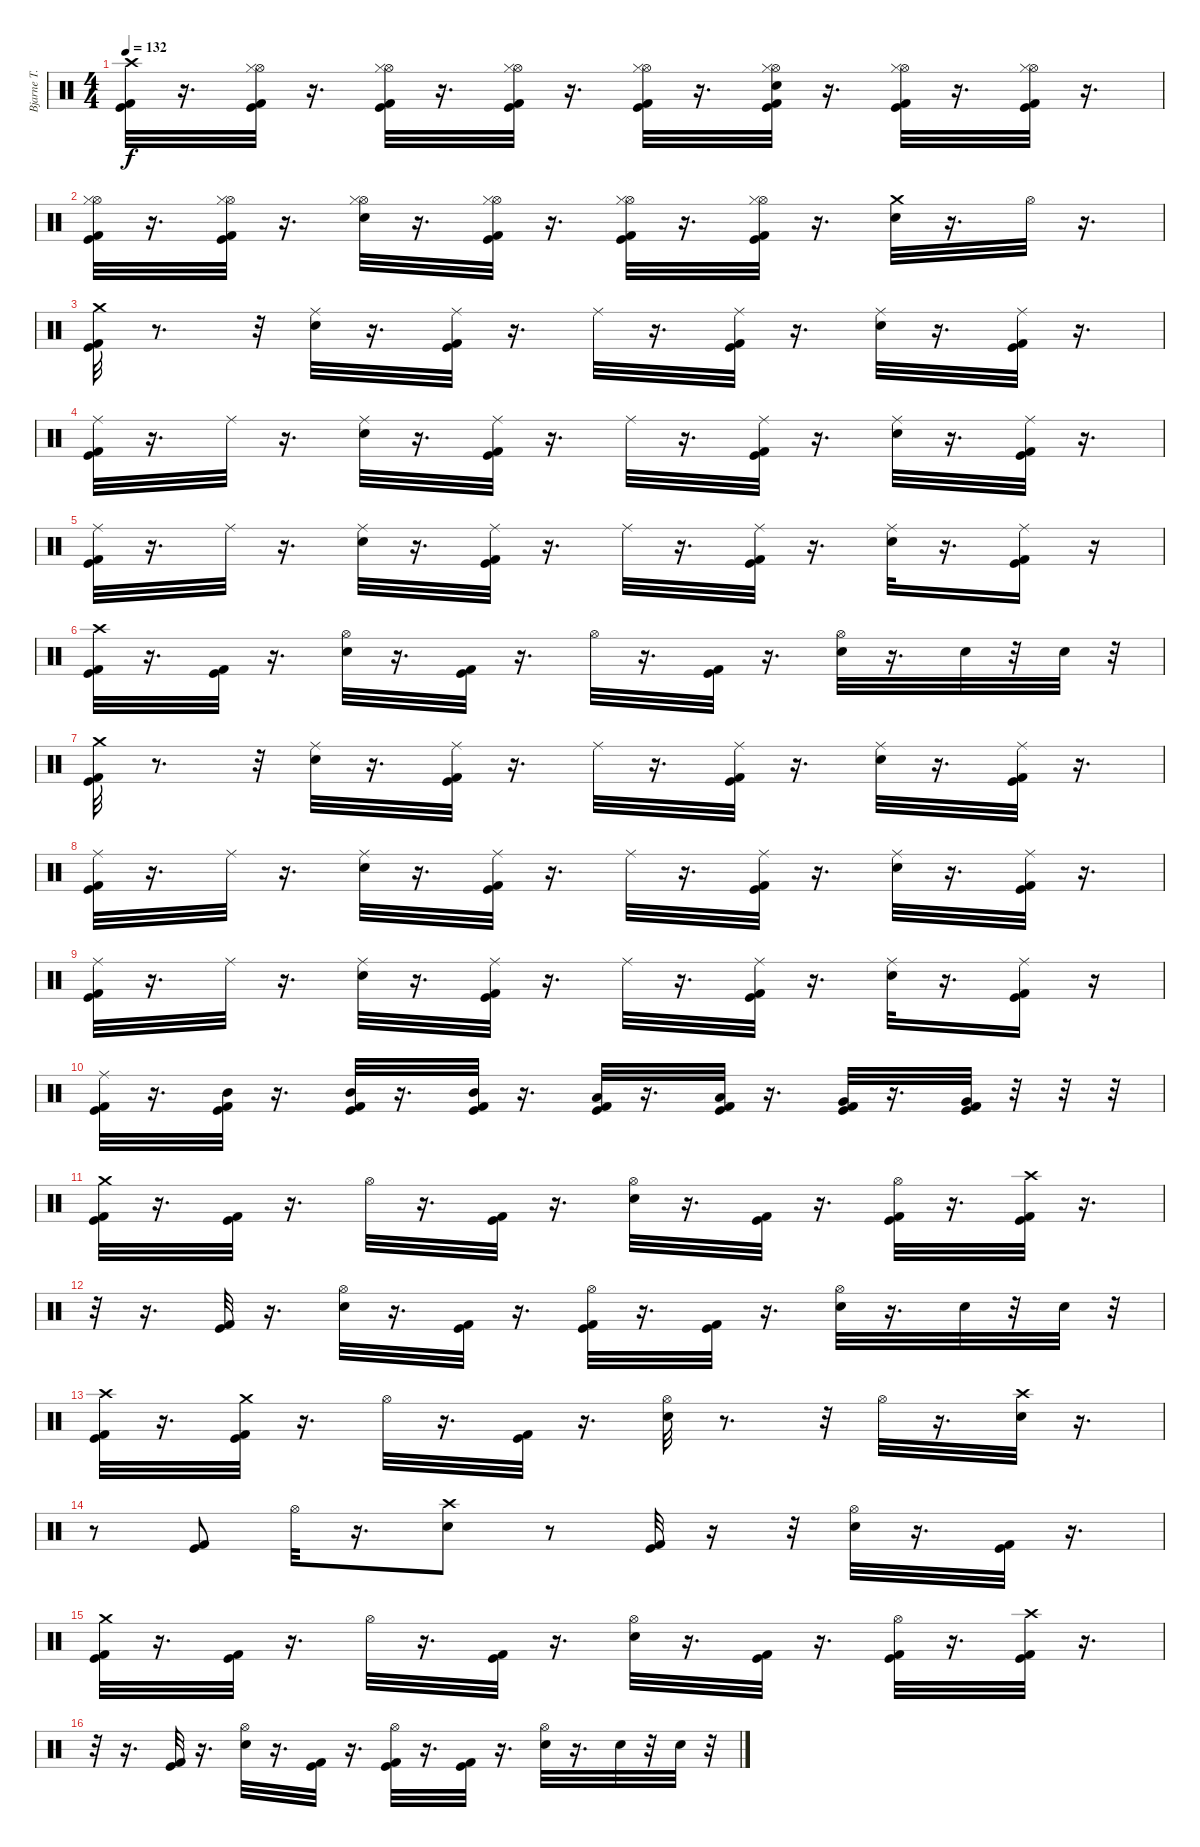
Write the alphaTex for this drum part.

\track ("Bjarne T. Holme" "Bjarne T. ") {instrument percussion}
\staff {score}
\articulation defaults
\ts (4 4)
\tempo 132
\clef neutral
\ks c
("Crash high (hit)" "Kick (hit)" "Kick (hit) 2").32{dy f} r.16{d} ("Hi-Hat (open)" "Hi-Hat (closed)" "Kick (hit)" "Kick (hit) 2").32 r.16{d} ("Hi-Hat (open)" "Hi-Hat (closed)" "Kick (hit)" "Kick (hit) 2").32 r.16{d} ("Hi-Hat (open)" "Hi-Hat (closed)" "Kick (hit)" "Kick (hit) 2").32 r.16{d} ("Hi-Hat (open)" "Hi-Hat (closed)" "Kick (hit)" "Kick (hit) 2").32 r.16{d} ("Hi-Hat (open)" "Hi-Hat (closed)" "Snare (hit) 2" "Kick (hit)" "Kick (hit) 2").32 r.16{d} ("Hi-Hat (open)" "Hi-Hat (closed)" "Kick (hit)" "Kick (hit) 2").32 r.16{d} ("Hi-Hat (open)" "Hi-Hat (closed)" "Kick (hit)" "Kick (hit) 2").32 r.16{d} |
("Hi-Hat (open)" "Hi-Hat (closed)" "Kick (hit)" "Kick (hit) 2").32 r.16{d} ("Hi-Hat (open)" "Hi-Hat (closed)" "Kick (hit)" "Kick (hit) 2").32 r.16{d} ("Hi-Hat (open)" "Hi-Hat (closed)" "Snare (hit) 2").32 r.16{d} ("Hi-Hat (open)" "Hi-Hat (closed)" "Kick (hit)" "Kick (hit) 2").32 r.16{d} ("Hi-Hat (open)" "Hi-Hat (closed)" "Kick (hit)" "Kick (hit) 2").32 r.16{d} ("Hi-Hat (open)" "Hi-Hat (closed)" "Kick (hit)" "Kick (hit) 2").32 r.16{d} ("Crash medium (hit)" "Snare (hit) 2").32 r.16{d} "Hi-Hat (open)".32 r.16{d} |
("Crash medium (hit)" "Kick (hit)" "Kick (hit) 2").32 r.8{d} r.32 ("Ride (middle)" "Snare (hit) 2").32 r.16{d} ("Ride (middle)" "Kick (hit)" "Kick (hit) 2").32 r.16{d} "Ride (middle)".32 r.16{d} ("Ride (middle)" "Kick (hit)" "Kick (hit) 2").32 r.16{d} ("Ride (middle)" "Snare (hit) 2").32 r.16{d} ("Ride (middle)" "Kick (hit)" "Kick (hit) 2").32 r.16{d} |
("Ride (middle)" "Kick (hit)" "Kick (hit) 2").32 r.16{d} "Ride (middle)".32 r.16{d} ("Ride (middle)" "Snare (hit) 2").32 r.16{d} ("Ride (middle)" "Kick (hit)" "Kick (hit) 2").32 r.16{d} "Ride (middle)".32 r.16{d} ("Ride (middle)" "Kick (hit)" "Kick (hit) 2").32 r.16{d} ("Ride (middle)" "Snare (hit) 2").32 r.16{d} ("Ride (middle)" "Kick (hit)" "Kick (hit) 2").32 r.16{d} |
("Ride (middle)" "Kick (hit)" "Kick (hit) 2").32 r.16{d} "Ride (middle)".32 r.16{d} ("Ride (middle)" "Snare (hit) 2").32 r.16{d} ("Ride (middle)" "Kick (hit)" "Kick (hit) 2").32 r.16{d} "Ride (middle)".32 r.16{d} ("Ride (middle)" "Kick (hit)" "Kick (hit) 2").32 r.16{d} ("Ride (middle)" "Snare (hit) 2").32 r.16{d} ("Ride (middle)" "Kick (hit)" "Kick (hit) 2").16 r.16 |
("Crash high (hit)" "Kick (hit)" "Kick (hit) 2").32 r.16{d} ("Kick (hit)" "Kick (hit) 2").32 r.16{d} ("Hi-Hat (open)" "Snare (hit) 2").32 r.16{d} ("Kick (hit)" "Kick (hit) 2").32 r.16{d} "Hi-Hat (open)".32 r.16{d} ("Kick (hit)" "Kick (hit) 2").32 r.16{d} ("Hi-Hat (open)" "Snare (hit) 2").32 r.16{d} "Snare (hit) 2".32 r.32 "Snare (hit) 2".32 r.32 |
("Crash medium (hit)" "Kick (hit)" "Kick (hit) 2").32 r.8{d} r.32 ("Ride (middle)" "Snare (hit) 2").32 r.16{d} ("Ride (middle)" "Kick (hit)" "Kick (hit) 2").32 r.16{d} "Ride (middle)".32 r.16{d} ("Ride (middle)" "Kick (hit)" "Kick (hit) 2").32 r.16{d} ("Ride (middle)" "Snare (hit) 2").32 r.16{d} ("Ride (middle)" "Kick (hit)" "Kick (hit) 2").32 r.16{d} |
("Ride (middle)" "Kick (hit)" "Kick (hit) 2").32 r.16{d} "Ride (middle)".32 r.16{d} ("Ride (middle)" "Snare (hit) 2").32 r.16{d} ("Ride (middle)" "Kick (hit)" "Kick (hit) 2").32 r.16{d} "Ride (middle)".32 r.16{d} ("Ride (middle)" "Kick (hit)" "Kick (hit) 2").32 r.16{d} ("Ride (middle)" "Snare (hit) 2").32 r.16{d} ("Ride (middle)" "Kick (hit)" "Kick (hit) 2").32 r.16{d} |
("Ride (middle)" "Kick (hit)" "Kick (hit) 2").32 r.16{d} "Ride (middle)".32 r.16{d} ("Ride (middle)" "Snare (hit) 2").32 r.16{d} ("Ride (middle)" "Kick (hit)" "Kick (hit) 2").32 r.16{d} "Ride (middle)".32 r.16{d} ("Ride (middle)" "Kick (hit)" "Kick (hit) 2").32 r.16{d} ("Ride (middle)" "Snare (hit) 2").32 r.16{d} ("Ride (middle)" "Kick (hit)" "Kick (hit) 2").16 r.16 |
("Ride (middle)" "Kick (hit)" "Kick (hit) 2").32 r.16{d} ("Mid Tom (hit)" "Kick (hit)" "Kick (hit) 2").32 r.16{d} ("Mid Tom (hit)" "Kick (hit)" "Kick (hit) 2").32 r.16{d} ("Mid Tom (hit)" "Kick (hit)" "Kick (hit) 2").32 r.16{d} ("Low Tom (hit)" "Kick (hit)" "Kick (hit) 2").32 r.16{d} ("Low Tom (hit)" "Kick (hit)" "Kick (hit) 2").32 r.16{d} ("Very Low Tom (hit)" "Kick (hit)" "Kick (hit) 2").32 r.16{d} ("Very Low Tom (hit)" "Kick (hit)" "Kick (hit) 2").32 r.32 r.32 r.32 |
("Crash medium (hit)" "Kick (hit)" "Kick (hit) 2").32 r.16{d} ("Kick (hit)" "Kick (hit) 2").32 r.16{d} "Hi-Hat (open)".32 r.16{d} ("Kick (hit)" "Kick (hit) 2").32 r.16{d} ("Hi-Hat (open)" "Snare (hit) 2").32 r.16{d} ("Kick (hit)" "Kick (hit) 2").32 r.16{d} ("Hi-Hat (open)" "Kick (hit)" "Kick (hit) 2").32 r.16{d} ("Crash high (hit)" "Kick (hit)" "Kick (hit) 2").32 r.16{d} |
r.32 r.16{d} ("Kick (hit)" "Kick (hit) 2").32 r.16{d} ("Hi-Hat (open)" "Snare (hit) 2").32 r.16{d} ("Kick (hit)" "Kick (hit) 2").32 r.16{d} ("Hi-Hat (open)" "Kick (hit)" "Kick (hit) 2").32 r.16{d} ("Kick (hit)" "Kick (hit) 2").32 r.16{d} ("Hi-Hat (open)" "Snare (hit) 2").32 r.16{d} "Snare (hit) 2".32 r.32 "Snare (hit) 2".32 r.32 |
("Crash high (hit)" "Kick (hit)" "Kick (hit) 2").32 r.16{d} ("Crash medium (hit)" "Kick (hit)" "Kick (hit) 2").32 r.16{d} "Hi-Hat (open)".32 r.16{d} ("Kick (hit)" "Kick (hit) 2").32 r.16{d} ("Hi-Hat (open)" "Snare (hit) 2").32 r.8{d} r.32 "Hi-Hat (open)".32 r.16{d} ("Crash high (hit)" "Snare (hit) 2").32 r.16{d} |
r.8 ("Kick (hit)" "Kick (hit) 2").8 "Hi-Hat (open)".32 r.16{d} ("Crash high (hit)" "Snare (hit) 2").8 r.8 ("Kick (hit)" "Kick (hit) 2").32 r.16 r.32 ("Hi-Hat (open)" "Snare (hit) 2").32 r.16{d} ("Kick (hit)" "Kick (hit) 2").32 r.16{d} |
("Crash medium (hit)" "Kick (hit)" "Kick (hit) 2").32 r.16{d} ("Kick (hit)" "Kick (hit) 2").32 r.16{d} "Hi-Hat (open)".32 r.16{d} ("Kick (hit)" "Kick (hit) 2").32 r.16{d} ("Hi-Hat (open)" "Snare (hit) 2").32 r.16{d} ("Kick (hit)" "Kick (hit) 2").32 r.16{d} ("Hi-Hat (open)" "Kick (hit)" "Kick (hit) 2").32 r.16{d} ("Crash high (hit)" "Kick (hit)" "Kick (hit) 2").32 r.16{d} |
r.32 r.16{d} ("Kick (hit)" "Kick (hit) 2").32 r.16{d} ("Hi-Hat (open)" "Snare (hit) 2").32 r.16{d} ("Kick (hit)" "Kick (hit) 2").32 r.16{d} ("Hi-Hat (open)" "Kick (hit)" "Kick (hit) 2").32 r.16{d} ("Kick (hit)" "Kick (hit) 2").32 r.16{d} ("Hi-Hat (open)" "Snare (hit) 2").32 r.16{d} "Snare (hit) 2".32 r.32 "Snare (hit) 2".32 r.32
